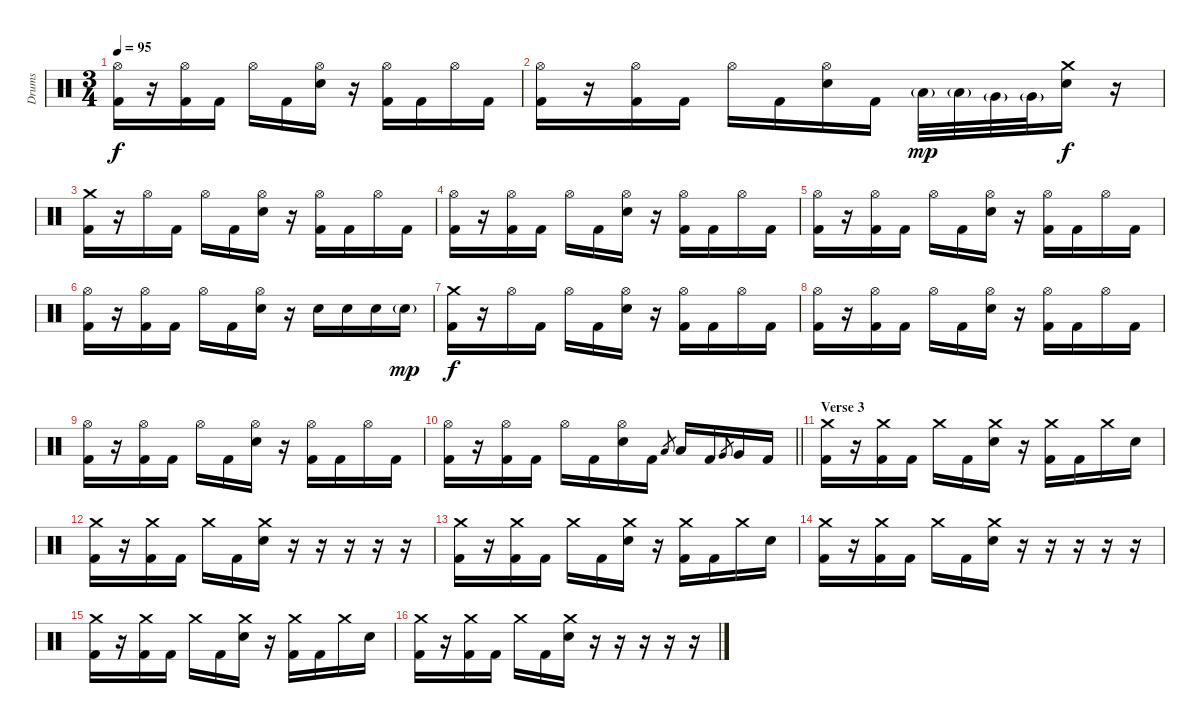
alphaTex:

\track ("Drums" "Drums") {instrument percussion}
\staff {score}
\articulation defaults
\ts (3 4)
\tempo 95
\clef neutral
\ks c
("Hi-Hat (open)" "Kick (hit) 2").16{dy f} r.16 ("Hi-Hat (open)" "Kick (hit) 2").16 "Kick (hit) 2".16 "Hi-Hat (open)".16 "Kick (hit) 2".16 ("Hi-Hat (open)" "Electric Snare (hit)").16 r.16 ("Hi-Hat (open)" "Kick (hit) 2").16 "Kick (hit) 2".16 "Hi-Hat (open)".16 "Kick (hit) 2".16 |
("Hi-Hat (open)" "Kick (hit) 2").16 r.16 ("Hi-Hat (open)" "Kick (hit) 2").16 "Kick (hit) 2".16 "Hi-Hat (open)".16 "Kick (hit) 2".16 ("Hi-Hat (open)" "Electric Snare (hit)").16 "Kick (hit) 2".16 "Low Tom (hit)"{g}.32{dy mp} "Low Tom (hit)"{g}.32 "Very Low Tom (hit)"{g}.32 "Very Low Tom (hit)"{g}.32 ("Crash medium (hit)" "Electric Snare (hit)").16{dy f} r.16 |
("Crash medium (hit)" "Kick (hit) 2").16 r.16 "Hi-Hat (open)".16 "Kick (hit) 2".16 "Hi-Hat (open)".16 "Kick (hit) 2".16 ("Hi-Hat (open)" "Electric Snare (hit)").16 r.16 ("Hi-Hat (open)" "Kick (hit) 2").16 "Kick (hit) 2".16 "Hi-Hat (open)".16 "Kick (hit) 2".16 |
("Hi-Hat (open)" "Kick (hit) 2").16 r.16 ("Hi-Hat (open)" "Kick (hit) 2").16 "Kick (hit) 2".16 "Hi-Hat (open)".16 "Kick (hit) 2".16 ("Hi-Hat (open)" "Electric Snare (hit)").16 r.16 ("Hi-Hat (open)" "Kick (hit) 2").16 "Kick (hit) 2".16 "Hi-Hat (open)".16 "Kick (hit) 2".16 |
("Hi-Hat (open)" "Kick (hit) 2").16 r.16 ("Hi-Hat (open)" "Kick (hit) 2").16 "Kick (hit) 2".16 "Hi-Hat (open)".16 "Kick (hit) 2".16 ("Hi-Hat (open)" "Electric Snare (hit)").16 r.16 ("Hi-Hat (open)" "Kick (hit) 2").16 "Kick (hit) 2".16 "Hi-Hat (open)".16 "Kick (hit) 2".16 |
("Hi-Hat (open)" "Kick (hit) 2").16 r.16 ("Hi-Hat (open)" "Kick (hit) 2").16 "Kick (hit) 2".16 "Hi-Hat (open)".16 "Kick (hit) 2".16 ("Hi-Hat (open)" "Electric Snare (hit)").16 r.16 "Electric Snare (hit)".16 "Electric Snare (hit)".16 "Electric Snare (hit)".16 "Electric Snare (hit)"{g}.16{dy mp} |
("Crash medium (hit)" "Kick (hit) 2").16{dy f} r.16 "Hi-Hat (open)".16 "Kick (hit) 2".16 "Hi-Hat (open)".16 "Kick (hit) 2".16 ("Hi-Hat (open)" "Electric Snare (hit)").16 r.16 ("Hi-Hat (open)" "Kick (hit) 2").16 "Kick (hit) 2".16 "Hi-Hat (open)".16 "Kick (hit) 2".16 |
("Hi-Hat (open)" "Kick (hit) 2").16 r.16 ("Hi-Hat (open)" "Kick (hit) 2").16 "Kick (hit) 2".16 "Hi-Hat (open)".16 "Kick (hit) 2".16 ("Hi-Hat (open)" "Electric Snare (hit)").16 r.16 ("Hi-Hat (open)" "Kick (hit) 2").16 "Kick (hit) 2".16 "Hi-Hat (open)".16 "Kick (hit) 2".16 |
("Hi-Hat (open)" "Kick (hit) 2").16 r.16 ("Hi-Hat (open)" "Kick (hit) 2").16 "Kick (hit) 2".16 "Hi-Hat (open)".16 "Kick (hit) 2".16 ("Hi-Hat (open)" "Electric Snare (hit)").16 r.16 ("Hi-Hat (open)" "Kick (hit) 2").16 "Kick (hit) 2".16 "Hi-Hat (open)".16 "Kick (hit) 2".16 |
\barLineRight lightlight
("Hi-Hat (open)" "Kick (hit) 2").16 r.16 ("Hi-Hat (open)" "Kick (hit) 2").16 "Kick (hit) 2".16 "Hi-Hat (open)".16 "Kick (hit) 2".16 ("Hi-Hat (open)" "Electric Snare (hit)").16 "Kick (hit) 2".16 "Low Tom (hit)".8{gr} "Low Tom (hit)".16 "Kick (hit) 2".16 "Very Low Tom (hit)".8{gr} "Very Low Tom (hit)".16 "Kick (hit) 2".16 |
\section ("" "Verse 3")
("Crash medium (hit)" "Kick (hit) 2").16 r.16 ("Crash medium (hit)" "Kick (hit) 2").16 "Kick (hit) 2".16 "Crash medium (hit)".16 "Kick (hit) 2".16 ("Crash medium (hit)" "Electric Snare (hit)").16 r.16 ("Crash medium (hit)" "Kick (hit) 2").16 "Kick (hit) 2".16 "Crash medium (hit)".16 "Electric Snare (hit)".16 |
("Crash medium (hit)" "Kick (hit) 2").16 r.16 ("Crash medium (hit)" "Kick (hit) 2").16 "Kick (hit) 2".16 "Crash medium (hit)".16 "Kick (hit) 2".16 ("Crash medium (hit)" "Electric Snare (hit)").16 r.16 r.16 r.16 r.16 r.16 |
("Crash medium (hit)" "Kick (hit) 2").16 r.16 ("Crash medium (hit)" "Kick (hit) 2").16 "Kick (hit) 2".16 "Crash medium (hit)".16 "Kick (hit) 2".16 ("Crash medium (hit)" "Electric Snare (hit)").16 r.16 ("Crash medium (hit)" "Kick (hit) 2").16 "Kick (hit) 2".16 "Crash medium (hit)".16 "Electric Snare (hit)".16 |
("Crash medium (hit)" "Kick (hit) 2").16 r.16 ("Crash medium (hit)" "Kick (hit) 2").16 "Kick (hit) 2".16 "Crash medium (hit)".16 "Kick (hit) 2".16 ("Crash medium (hit)" "Electric Snare (hit)").16 r.16 r.16 r.16 r.16 r.16 |
("Crash medium (hit)" "Kick (hit) 2").16 r.16 ("Crash medium (hit)" "Kick (hit) 2").16 "Kick (hit) 2".16 "Crash medium (hit)".16 "Kick (hit) 2".16 ("Crash medium (hit)" "Electric Snare (hit)").16 r.16 ("Crash medium (hit)" "Kick (hit) 2").16 "Kick (hit) 2".16 "Crash medium (hit)".16 "Electric Snare (hit)".16 |
("Crash medium (hit)" "Kick (hit) 2").16 r.16 ("Crash medium (hit)" "Kick (hit) 2").16 "Kick (hit) 2".16 "Crash medium (hit)".16 "Kick (hit) 2".16 ("Crash medium (hit)" "Electric Snare (hit)").16 r.16 r.16 r.16 r.16 r.16
